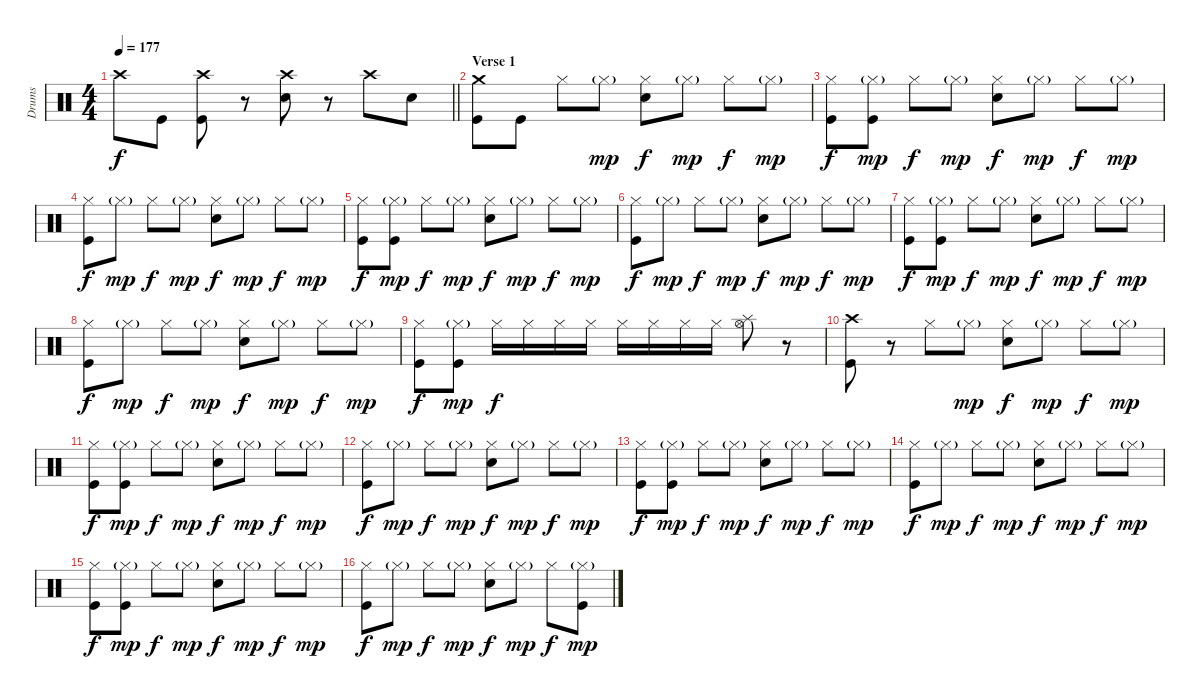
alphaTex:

\track ("Drums" "Drums") {instrument percussion}
\staff {score}
\articulation defaults
\ts (4 4)
\tempo 177
\clef neutral
\barLineRight lightlight
\ks c "Crash high (hit)".8{dy f} "Kick (hit)".8
("Crash high (hit)" "Kick (hit)").8 r.8 ("Crash high (hit)" "Snare (hit) 2").8 r.8 "Crash high (hit)".8 "Snare (hit) 2".8 |
\section ("" "Verse 1")
("Crash medium (hit)" "Kick (hit)").8 "Kick (hit)".8 "Hi-Hat (closed)".8 "Hi-Hat (closed)"{g}.8{dy mp} ("Hi-Hat (closed)" "Snare (hit) 2").8{dy f} "Hi-Hat (closed)"{g}.8{dy mp} "Hi-Hat (closed)".8{dy f} "Hi-Hat (closed)"{g}.8{dy mp} |
("Hi-Hat (closed)" "Kick (hit)").8{dy f} ("Hi-Hat (closed)"{g} "Kick (hit)").8{dy mp} "Hi-Hat (closed)".8{dy f} "Hi-Hat (closed)"{g}.8{dy mp} ("Hi-Hat (closed)" "Snare (hit) 2").8{dy f} "Hi-Hat (closed)"{g}.8{dy mp} "Hi-Hat (closed)".8{dy f} "Hi-Hat (closed)"{g}.8{dy mp} |
("Hi-Hat (closed)" "Kick (hit)").8{dy f} "Hi-Hat (closed)"{g}.8{dy mp} "Hi-Hat (closed)".8{dy f} "Hi-Hat (closed)"{g}.8{dy mp} ("Hi-Hat (closed)" "Snare (hit) 2").8{dy f} "Hi-Hat (closed)"{g}.8{dy mp} "Hi-Hat (closed)".8{dy f} "Hi-Hat (closed)"{g}.8{dy mp} |
("Hi-Hat (closed)" "Kick (hit)").8{dy f} ("Hi-Hat (closed)"{g} "Kick (hit)").8{dy mp} "Hi-Hat (closed)".8{dy f} "Hi-Hat (closed)"{g}.8{dy mp} ("Hi-Hat (closed)" "Snare (hit) 2").8{dy f} "Hi-Hat (closed)"{g}.8{dy mp} "Hi-Hat (closed)".8{dy f} "Hi-Hat (closed)"{g}.8{dy mp} |
("Hi-Hat (closed)" "Kick (hit)").8{dy f} "Hi-Hat (closed)"{g}.8{dy mp} "Hi-Hat (closed)".8{dy f} "Hi-Hat (closed)"{g}.8{dy mp} ("Hi-Hat (closed)" "Snare (hit) 2").8{dy f} "Hi-Hat (closed)"{g}.8{dy mp} "Hi-Hat (closed)".8{dy f} "Hi-Hat (closed)"{g}.8{dy mp} |
("Hi-Hat (closed)" "Kick (hit)").8{dy f} ("Hi-Hat (closed)"{g} "Kick (hit)").8{dy mp} "Hi-Hat (closed)".8{dy f} "Hi-Hat (closed)"{g}.8{dy mp} ("Hi-Hat (closed)" "Snare (hit) 2").8{dy f} "Hi-Hat (closed)"{g}.8{dy mp} "Hi-Hat (closed)".8{dy f} "Hi-Hat (closed)"{g}.8{dy mp} |
("Hi-Hat (closed)" "Kick (hit)").8{dy f} "Hi-Hat (closed)"{g}.8{dy mp} "Hi-Hat (closed)".8{dy f} "Hi-Hat (closed)"{g}.8{dy mp} ("Hi-Hat (closed)" "Snare (hit) 2").8{dy f} "Hi-Hat (closed)"{g}.8{dy mp} "Hi-Hat (closed)".8{dy f} "Hi-Hat (closed)"{g}.8{dy mp} |
("Hi-Hat (closed)" "Kick (hit)").8{dy f} ("Hi-Hat (closed)"{g} "Kick (hit)").8{dy mp} "Hi-Hat (closed)".16{dy f} "Hi-Hat (closed)".16 "Hi-Hat (closed)".16 "Hi-Hat (closed)".16 "Hi-Hat (closed)".16 "Hi-Hat (closed)".16 "Hi-Hat (closed)".16 "Hi-Hat (closed)".16 ("Hi-Hat (open)" "Splash (hit)").8 r.8 |
("Crash high (hit)" "Kick (hit)").8 r.8 "Hi-Hat (closed)".8 "Hi-Hat (closed)"{g}.8{dy mp} ("Hi-Hat (closed)" "Snare (hit) 2").8{dy f} "Hi-Hat (closed)"{g}.8{dy mp} "Hi-Hat (closed)".8{dy f} "Hi-Hat (closed)"{g}.8{dy mp} |
("Hi-Hat (closed)" "Kick (hit)").8{dy f} ("Hi-Hat (closed)"{g} "Kick (hit)").8{dy mp} "Hi-Hat (closed)".8{dy f} "Hi-Hat (closed)"{g}.8{dy mp} ("Hi-Hat (closed)" "Snare (hit) 2").8{dy f} "Hi-Hat (closed)"{g}.8{dy mp} "Hi-Hat (closed)".8{dy f} "Hi-Hat (closed)"{g}.8{dy mp} |
("Hi-Hat (closed)" "Kick (hit)").8{dy f} "Hi-Hat (closed)"{g}.8{dy mp} "Hi-Hat (closed)".8{dy f} "Hi-Hat (closed)"{g}.8{dy mp} ("Hi-Hat (closed)" "Snare (hit) 2").8{dy f} "Hi-Hat (closed)"{g}.8{dy mp} "Hi-Hat (closed)".8{dy f} "Hi-Hat (closed)"{g}.8{dy mp} |
("Hi-Hat (closed)" "Kick (hit)").8{dy f} ("Hi-Hat (closed)"{g} "Kick (hit)").8{dy mp} "Hi-Hat (closed)".8{dy f} "Hi-Hat (closed)"{g}.8{dy mp} ("Hi-Hat (closed)" "Snare (hit) 2").8{dy f} "Hi-Hat (closed)"{g}.8{dy mp} "Hi-Hat (closed)".8{dy f} "Hi-Hat (closed)"{g}.8{dy mp} |
("Hi-Hat (closed)" "Kick (hit)").8{dy f} "Hi-Hat (closed)"{g}.8{dy mp} "Hi-Hat (closed)".8{dy f} "Hi-Hat (closed)"{g}.8{dy mp} ("Hi-Hat (closed)" "Snare (hit) 2").8{dy f} "Hi-Hat (closed)"{g}.8{dy mp} "Hi-Hat (closed)".8{dy f} "Hi-Hat (closed)"{g}.8{dy mp} |
("Hi-Hat (closed)" "Kick (hit)").8{dy f} ("Hi-Hat (closed)"{g} "Kick (hit)").8{dy mp} "Hi-Hat (closed)".8{dy f} "Hi-Hat (closed)"{g}.8{dy mp} ("Hi-Hat (closed)" "Snare (hit) 2").8{dy f} "Hi-Hat (closed)"{g}.8{dy mp} "Hi-Hat (closed)".8{dy f} "Hi-Hat (closed)"{g}.8{dy mp} |
("Hi-Hat (closed)" "Kick (hit)").8{dy f} "Hi-Hat (closed)"{g}.8{dy mp} "Hi-Hat (closed)".8{dy f} "Hi-Hat (closed)"{g}.8{dy mp} ("Hi-Hat (closed)" "Snare (hit) 2").8{dy f} "Hi-Hat (closed)"{g}.8{dy mp} "Hi-Hat (closed)".8{dy f} ("Hi-Hat (closed)"{g} "Kick (hit)").8{dy mp}
